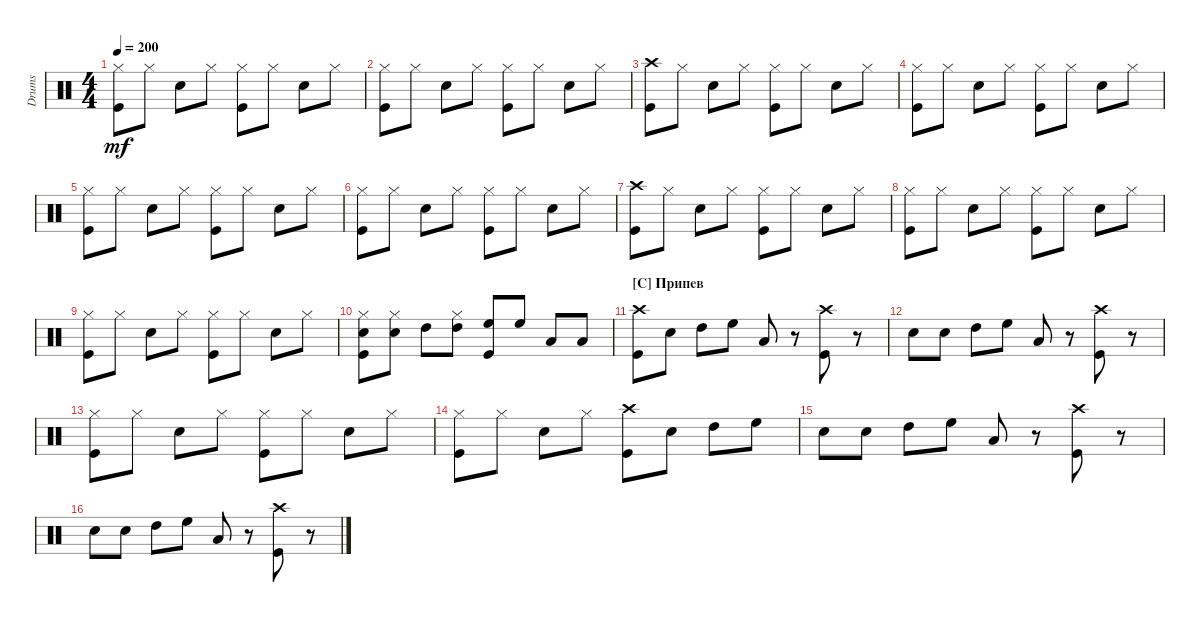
\track ("Drumkit" "Drums") {instrument percussion}
\staff {score}
\articulation defaults
\ts (4 4)
\tempo 200
\clef neutral
\ks c
("Kick (hit)" "Hi-Hat (closed)").8{dy mf} "Hi-Hat (closed)".8 "Snare (hit) 2".8 "Hi-Hat (closed)".8 ("Kick (hit)" "Hi-Hat (closed)").8 "Hi-Hat (closed)".8 "Snare (hit) 2".8 "Hi-Hat (closed)".8 |
("Kick (hit)" "Hi-Hat (closed)").8 "Hi-Hat (closed)".8 "Snare (hit) 2".8 "Hi-Hat (closed)".8 ("Kick (hit)" "Hi-Hat (closed)").8 "Hi-Hat (closed)".8 "Snare (hit) 2".8 "Hi-Hat (closed)".8 |
("Kick (hit)" "Crash high (hit)").8 "Hi-Hat (closed)".8 "Snare (hit) 2".8 "Hi-Hat (closed)".8 ("Kick (hit)" "Hi-Hat (closed)").8 "Hi-Hat (closed)".8 "Snare (hit) 2".8 "Hi-Hat (closed)".8 |
("Kick (hit)" "Hi-Hat (closed)").8 "Hi-Hat (closed)".8 "Snare (hit) 2".8 "Hi-Hat (closed)".8 ("Kick (hit)" "Hi-Hat (closed)").8 "Hi-Hat (closed)".8 "Snare (hit) 2".8 "Hi-Hat (closed)".8 |
("Kick (hit)" "Hi-Hat (closed)").8 "Hi-Hat (closed)".8 "Snare (hit) 2".8 "Hi-Hat (closed)".8 ("Kick (hit)" "Hi-Hat (closed)").8 "Hi-Hat (closed)".8 "Snare (hit) 2".8 "Hi-Hat (closed)".8 |
("Kick (hit)" "Hi-Hat (closed)").8 "Hi-Hat (closed)".8 "Snare (hit) 2".8 "Hi-Hat (closed)".8 ("Kick (hit)" "Hi-Hat (closed)").8 "Hi-Hat (closed)".8 "Snare (hit) 2".8 "Hi-Hat (closed)".8 |
("Kick (hit)" "Crash high (hit)").8 "Hi-Hat (closed)".8 "Snare (hit) 2".8 "Hi-Hat (closed)".8 ("Kick (hit)" "Hi-Hat (closed)").8 "Hi-Hat (closed)".8 "Snare (hit) 2".8 "Hi-Hat (closed)".8 |
("Kick (hit)" "Hi-Hat (closed)").8 "Hi-Hat (closed)".8 "Snare (hit) 2".8 "Hi-Hat (closed)".8 ("Kick (hit)" "Hi-Hat (closed)").8 "Hi-Hat (closed)".8 "Snare (hit) 2".8 "Hi-Hat (closed)".8 |
("Kick (hit)" "Hi-Hat (closed)").8 "Hi-Hat (closed)".8 "Snare (hit) 2".8 "Hi-Hat (closed)".8 ("Kick (hit)" "Hi-Hat (closed)").8 "Hi-Hat (closed)".8 "Snare (hit) 2".8 "Hi-Hat (closed)".8 |
("Kick (hit)" "Hi-Hat (closed)" "Snare (hit) 2").8 ("Hi-Hat (closed)" "Snare (hit) 2").8 "High Tom (hit)".8 ("Hi-Hat (closed)" "High Tom (hit)").8 ("Kick (hit)" "High Floor Tom (hit)").8 "High Floor Tom (hit)".8 "Low Tom (hit)".8 "Low Tom (hit)".8 |
\section ("C" "Припев")
("Crash high (hit)" "Kick (hit)").8 "Snare (hit) 2".8 "High Tom (hit)".8 "High Floor Tom (hit)".8 "Low Tom (hit)".8 r.8 ("Crash high (hit)" "Kick (hit)").8 r.8 |
"Snare (hit) 2".8 "Snare (hit) 2".8 "High Tom (hit)".8 "High Floor Tom (hit)".8 "Low Tom (hit)".8 r.8 ("Crash high (hit)" "Kick (hit)").8 r.8 |
("Kick (hit)" "Hi-Hat (closed)").8 "Hi-Hat (closed)".8 "Snare (hit) 2".8 "Hi-Hat (closed)".8 ("Kick (hit)" "Hi-Hat (closed)").8 "Hi-Hat (closed)".8 "Snare (hit) 2".8 "Hi-Hat (closed)".8 |
("Kick (hit)" "Hi-Hat (closed)").8 "Hi-Hat (closed)".8 "Snare (hit) 2".8 "Hi-Hat (closed)".8 ("Kick (hit)" "Crash high (hit)").8 "Snare (hit) 2".8 "High Tom (hit)".8 "High Floor Tom (hit)".8 |
"Snare (hit) 2".8 "Snare (hit) 2".8 "High Tom (hit)".8 "High Floor Tom (hit)".8 "Low Tom (hit)".8 r.8 ("Crash high (hit)" "Kick (hit)").8 r.8 |
"Snare (hit) 2".8 "Snare (hit) 2".8 "High Tom (hit)".8 "High Floor Tom (hit)".8 "Low Tom (hit)".8 r.8 ("Crash high (hit)" "Kick (hit)").8 r.8
